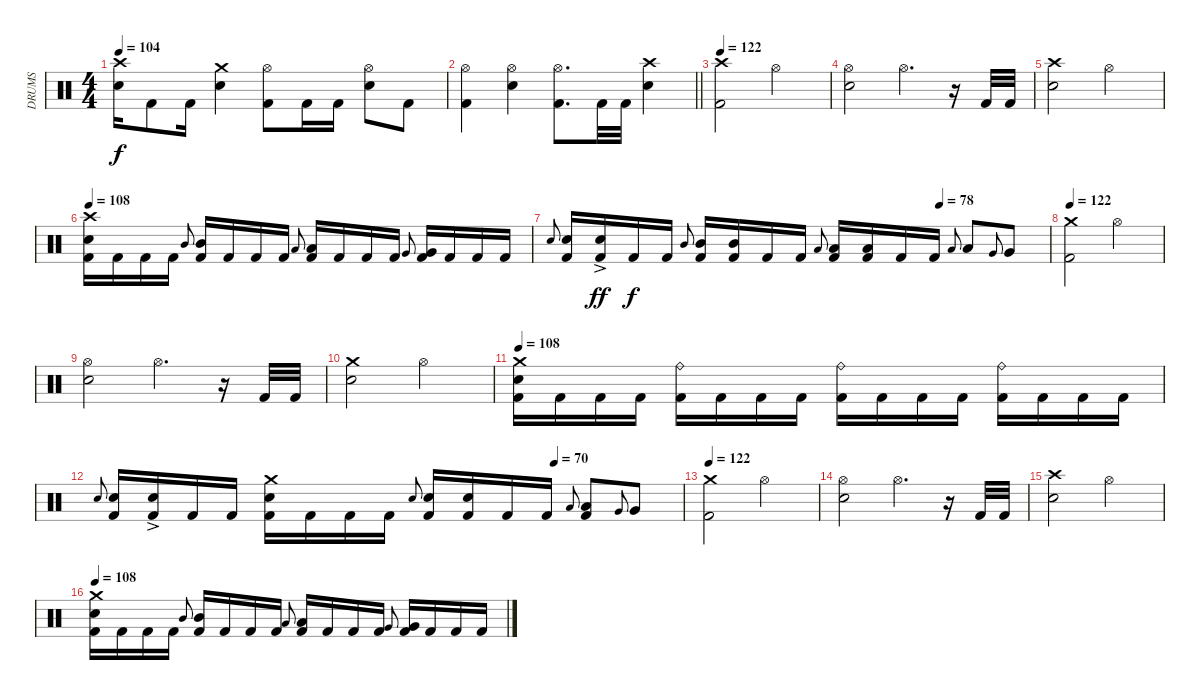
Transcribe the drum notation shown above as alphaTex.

\track ("DRUMS" "DRUMS") {instrument percussion}
\staff {score}
\articulation defaults
\ts (4 4)
\tempo 104
\clef neutral
\ks c
("Crash high (hit)" "Snare (hit) 2").16{dy f} "Kick (hit) 2".8 "Kick (hit) 2".16 ("Crash medium (hit)" "Snare (hit) 2").4 ("Hi-Hat (open)" "Kick (hit) 2").8 "Kick (hit) 2".16 "Kick (hit) 2".16 ("Hi-Hat (open)" "Snare (hit) 2").8 "Kick (hit) 2".8 |
\barLineRight lightlight
("Hi-Hat (open)" "Kick (hit) 2").4 ("Hi-Hat (open)" "Snare (hit) 2").4 ("Hi-Hat (open)" "Kick (hit) 2").8{d} "Kick (hit) 2".32 "Kick (hit) 2".32 ("Crash high (hit)" "Snare (hit) 2").4 |
\tempo 122
("Crash high (hit)" "Kick (hit) 2").2 "Hi-Hat (open)".2 |
("Hi-Hat (open)" "Snare (hit) 2").2 "Hi-Hat (open)".4{d} r.16 "Kick (hit) 2".32 "Kick (hit) 2".32 |
("Crash high (hit)" "Snare (hit) 2").2 "Hi-Hat (open)".2 |
\tempo 108
("Crash high (hit)" "Snare (hit) 2" "Kick (hit) 2").16 "Kick (hit) 2".16 "Kick (hit) 2".16 "Kick (hit) 2".16 "Mid Tom (hit)".8{gr onbeat} ("Mid Tom (hit)" "Kick (hit) 2").16 "Kick (hit) 2".16 "Kick (hit) 2".16 "Kick (hit) 2".16 "Low Tom (hit)".8{gr onbeat} ("Low Tom (hit)" "Kick (hit) 2").16 "Kick (hit) 2".16 "Kick (hit) 2".16 "Kick (hit) 2".16 "Very Low Tom (hit)".8{gr onbeat} ("Very Low Tom (hit)" "Kick (hit) 2").16 "Kick (hit) 2".16 "Kick (hit) 2".16 "Kick (hit) 2".16 |
\tempo (78 0.78125)
"Snare (hit) 2".8{gr onbeat} ("Snare (hit) 2" "Kick (hit) 2").16 ("Snare (hit) 2"{ac} "Kick (hit) 2").16{dy ff} "Kick (hit) 2".16{dy f} "Kick (hit) 2".16 "Mid Tom (hit)".8{gr onbeat} ("Mid Tom (hit)" "Kick (hit) 2").16 ("Mid Tom (hit)" "Kick (hit) 2").16 "Kick (hit) 2".16 "Kick (hit) 2".16 "Low Tom (hit)".8{gr onbeat} ("Low Tom (hit)" "Kick (hit) 2").16 ("Low Tom (hit)" "Kick (hit) 2").16 "Kick (hit) 2".16 "Kick (hit) 2".16 "Low Tom (hit)".8{gr onbeat} "Low Tom (hit)".8 "Very Low Tom (hit)".8{gr onbeat} "Very Low Tom (hit)".8 |
\tempo 122
("Crash medium (hit)" "Kick (hit) 2").2 "Hi-Hat (open)".2 |
("Hi-Hat (open)" "Snare (hit) 2").2 "Hi-Hat (open)".4{d} r.16 "Kick (hit) 2".32 "Kick (hit) 2".32 |
("Crash medium (hit)" "Snare (hit) 2").2 "Hi-Hat (open)".2 |
\tempo 108
("Crash medium (hit)" "Snare (hit) 2" "Kick (hit) 2").16 "Kick (hit) 2".16 "Kick (hit) 2".16 "Kick (hit) 2".16 ("Ride (bell)" "Kick (hit) 2").16 "Kick (hit) 2".16 "Kick (hit) 2".16 "Kick (hit) 2".16 ("Ride (bell)" "Kick (hit) 2").16 "Kick (hit) 2".16 "Kick (hit) 2".16 "Kick (hit) 2".16 ("Ride (bell)" "Kick (hit) 2").16 "Kick (hit) 2".16 "Kick (hit) 2".16 "Kick (hit) 2".16 |
\tempo (70 0.78125)
"Snare (hit) 2".8{gr onbeat} ("Snare (hit) 2" "Kick (hit) 2").16 ("Snare (hit) 2"{ac} "Kick (hit) 2").16 "Kick (hit) 2".16 "Kick (hit) 2".16 ("Crash medium (hit)" "Snare (hit) 2" "Kick (hit) 2").16 "Kick (hit) 2".16 "Kick (hit) 2".16 "Kick (hit) 2".16 "Snare (hit) 2".8{gr onbeat} ("Snare (hit) 2" "Kick (hit) 2").16 ("Snare (hit) 2" "Kick (hit) 2").16 "Kick (hit) 2".16 "Kick (hit) 2".16 "Low Tom (hit)".8{gr onbeat} ("Low Tom (hit)" "Kick (hit) 2").8 "Very Low Tom (hit)".8{gr onbeat} "Very Low Tom (hit)".8 |
\tempo 122
("Crash medium (hit)" "Kick (hit) 2").2 "Hi-Hat (open)".2 |
("Hi-Hat (open)" "Snare (hit) 2").2 "Hi-Hat (open)".4{d} r.16 "Kick (hit) 2".32 "Kick (hit) 2".32 |
("Crash high (hit)" "Snare (hit) 2").2 "Hi-Hat (open)".2 |
\tempo 108
("Crash medium (hit)" "Snare (hit) 2" "Kick (hit) 2").16 "Kick (hit) 2".16 "Kick (hit) 2".16 "Kick (hit) 2".16 "Mid Tom (hit)".8{gr onbeat} ("Mid Tom (hit)" "Kick (hit) 2").16 "Kick (hit) 2".16 "Kick (hit) 2".16 "Kick (hit) 2".16 "Low Tom (hit)".8{gr onbeat} ("Low Tom (hit)" "Kick (hit) 2").16 "Kick (hit) 2".16 "Kick (hit) 2".16 "Kick (hit) 2".16 "Very Low Tom (hit)".8{gr onbeat} ("Very Low Tom (hit)" "Kick (hit) 2").16 "Kick (hit) 2".16 "Kick (hit) 2".16 "Kick (hit) 2".16
